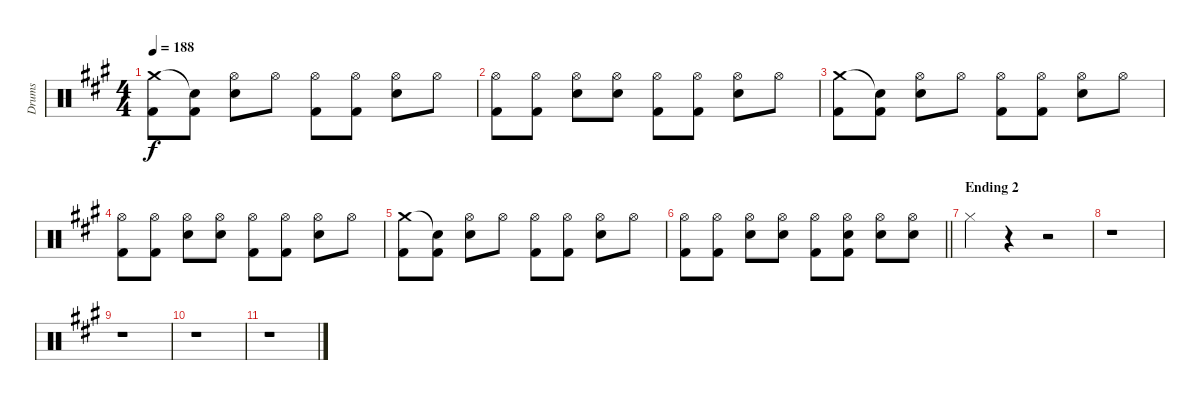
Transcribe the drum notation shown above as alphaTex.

\track ("Drums" "Drums") {instrument percussion}
\staff {score}
\articulation defaults
\ts (4 4)
\tempo 188
\clef neutral
\ks a
("Crash medium (hit)" "Kick (hit) 2").8{dy f} ("Snare (hit)"{t} "Kick (hit) 2").8 ("Hi-Hat (open)" "Electric Snare (hit)").8 "Hi-Hat (open)".8 ("Hi-Hat (open)" "Kick (hit) 2").8 ("Hi-Hat (open)" "Kick (hit) 2").8 ("Hi-Hat (open)" "Electric Snare (hit)").8 "Hi-Hat (open)".8 |
("Hi-Hat (open)" "Kick (hit) 2").8 ("Hi-Hat (open)" "Kick (hit) 2").8 ("Hi-Hat (open)" "Electric Snare (hit)").8 ("Hi-Hat (open)" "Electric Snare (hit)").8 ("Hi-Hat (open)" "Kick (hit) 2").8 ("Hi-Hat (open)" "Kick (hit) 2").8 ("Hi-Hat (open)" "Electric Snare (hit)").8 "Hi-Hat (open)".8 |
("Crash medium (hit)" "Kick (hit) 2").8 ("Snare (hit)"{t} "Kick (hit) 2").8 ("Hi-Hat (open)" "Electric Snare (hit)").8 "Hi-Hat (open)".8 ("Hi-Hat (open)" "Kick (hit) 2").8 ("Hi-Hat (open)" "Kick (hit) 2").8 ("Hi-Hat (open)" "Electric Snare (hit)").8 "Hi-Hat (open)".8 |
("Hi-Hat (open)" "Kick (hit) 2").8 ("Hi-Hat (open)" "Kick (hit) 2").8 ("Hi-Hat (open)" "Electric Snare (hit)").8 ("Hi-Hat (open)" "Electric Snare (hit)").8 ("Hi-Hat (open)" "Kick (hit) 2").8 ("Hi-Hat (open)" "Kick (hit) 2").8 ("Hi-Hat (open)" "Electric Snare (hit)").8 "Hi-Hat (open)".8 |
("Crash medium (hit)" "Kick (hit) 2").8 ("Snare (hit)"{t} "Kick (hit) 2").8 ("Hi-Hat (open)" "Electric Snare (hit)").8 "Hi-Hat (open)".8 ("Hi-Hat (open)" "Kick (hit) 2").8 ("Hi-Hat (open)" "Kick (hit) 2").8 ("Hi-Hat (open)" "Electric Snare (hit)").8 "Hi-Hat (open)".8 |
\barLineRight lightlight
("Hi-Hat (open)" "Kick (hit) 2").8 ("Hi-Hat (open)" "Kick (hit) 2").8 ("Hi-Hat (open)" "Electric Snare (hit)").8 ("Hi-Hat (open)" "Electric Snare (hit)").8 ("Hi-Hat (open)" "Kick (hit) 2").8 ("Hi-Hat (open)" "Electric Snare (hit)" "Kick (hit) 2").8 ("Hi-Hat (open)" "Electric Snare (hit)").8 ("Hi-Hat (open)" "Electric Snare (hit)").8 |
\section ("" "Ending 2")
"Hi-Hat (closed)".4 r.4 r.2 |
r.1 |
r.1 |
r.1 |
r.1
